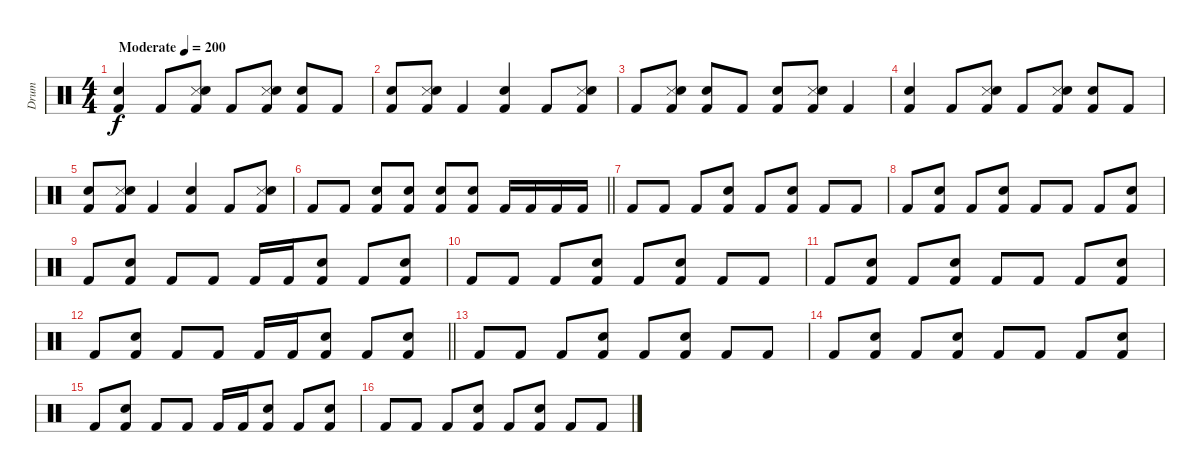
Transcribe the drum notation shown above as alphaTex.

\track ("Drum" "Drum") {instrument percussion}
\staff {score}
\articulation defaults
\ts (4 4)
\section ("" " ")
\tempo (200 "Moderate")
\clef neutral
\ks c
("Snare (hit) 2" "Kick (hit) 2").4{dy f} "Kick (hit) 2".8 ("Snare (side stick) 3" "Electric Snare (hit)" "Kick (hit) 2").8 "Kick (hit) 2".8 ("Snare (side stick) 3" "Electric Snare (hit)" "Kick (hit) 2").8 ("Snare (hit) 2" "Kick (hit) 2").8 "Kick (hit) 2".8 |
("Snare (hit) 2" "Kick (hit) 2").8 ("Snare (side stick) 3" "Electric Snare (hit)" "Kick (hit) 2").8 "Kick (hit) 2".4 ("Snare (hit) 2" "Kick (hit) 2").4 "Kick (hit) 2".8 ("Snare (side stick) 3" "Electric Snare (hit)" "Kick (hit) 2").8 |
"Kick (hit) 2".8 ("Snare (side stick) 3" "Electric Snare (hit)" "Kick (hit) 2").8 ("Snare (hit) 2" "Kick (hit) 2").8 "Kick (hit) 2".8 ("Snare (hit) 2" "Kick (hit) 2").8 ("Snare (side stick) 3" "Electric Snare (hit)" "Kick (hit) 2").8 "Kick (hit) 2".4 |
("Snare (hit) 2" "Kick (hit) 2").4 "Kick (hit) 2".8 ("Snare (side stick) 3" "Electric Snare (hit)" "Kick (hit) 2").8 "Kick (hit) 2".8 ("Snare (side stick) 3" "Electric Snare (hit)" "Kick (hit) 2").8 ("Snare (hit) 2" "Kick (hit) 2").8 "Kick (hit) 2".8 |
("Snare (hit) 2" "Kick (hit) 2").8 ("Snare (side stick) 3" "Electric Snare (hit)" "Kick (hit) 2").8 "Kick (hit) 2".4 ("Snare (hit) 2" "Kick (hit) 2").4 "Kick (hit) 2".8 ("Snare (side stick) 3" "Electric Snare (hit)" "Kick (hit) 2").8 |
\barLineRight lightlight "Kick (hit) 2".8 "Kick (hit) 2".8
("Electric Snare (hit)" "Kick (hit) 2").8 ("Electric Snare (hit)" "Kick (hit) 2").8 ("Electric Snare (hit)" "Kick (hit) 2").8 ("Snare (hit) 2" "Kick (hit) 2").8 "Kick (hit) 2".16 "Kick (hit) 2".16 "Kick (hit) 2".16 "Kick (hit) 2".16 |
\section ("" " ")
"Kick (hit) 2".8 "Kick (hit) 2".8 "Kick (hit) 2".8 ("Snare (hit) 2" "Kick (hit) 2").8 "Kick (hit) 2".8 ("Snare (hit) 2" "Kick (hit) 2").8 "Kick (hit) 2".8 "Kick (hit) 2".8 |
"Kick (hit) 2".8 ("Snare (hit) 2" "Kick (hit) 2").8 "Kick (hit) 2".8 ("Snare (hit) 2" "Kick (hit) 2").8 "Kick (hit) 2".8 "Kick (hit) 2".8 "Kick (hit) 2".8 ("Snare (hit) 2" "Kick (hit) 2").8 |
"Kick (hit) 2".8 ("Snare (hit) 2" "Kick (hit) 2").8 "Kick (hit) 2".8 "Kick (hit) 2".8 "Kick (hit) 2".16 "Kick (hit) 2".16 ("Snare (hit) 2" "Kick (hit) 2").8 "Kick (hit) 2".8 ("Snare (hit) 2" "Kick (hit) 2").8 |
"Kick (hit) 2".8 "Kick (hit) 2".8 "Kick (hit) 2".8 ("Snare (hit) 2" "Kick (hit) 2").8 "Kick (hit) 2".8 ("Snare (hit) 2" "Kick (hit) 2").8 "Kick (hit) 2".8 "Kick (hit) 2".8 |
"Kick (hit) 2".8 ("Snare (hit) 2" "Kick (hit) 2").8 "Kick (hit) 2".8 ("Snare (hit) 2" "Kick (hit) 2").8 "Kick (hit) 2".8 "Kick (hit) 2".8 "Kick (hit) 2".8 ("Snare (hit) 2" "Kick (hit) 2").8 |
\barLineRight lightlight "Kick (hit) 2".8
("Snare (hit) 2" "Kick (hit) 2").8 "Kick (hit) 2".8 "Kick (hit) 2".8 "Kick (hit) 2".16 "Kick (hit) 2".16 ("Snare (hit) 2" "Kick (hit) 2").8 "Kick (hit) 2".8 ("Snare (hit) 2" "Kick (hit) 2").8 |
\section ("" " ")
"Kick (hit) 2".8 "Kick (hit) 2".8 "Kick (hit) 2".8 ("Snare (hit) 2" "Kick (hit) 2").8 "Kick (hit) 2".8 ("Snare (hit) 2" "Kick (hit) 2").8 "Kick (hit) 2".8 "Kick (hit) 2".8 |
"Kick (hit) 2".8 ("Snare (hit) 2" "Kick (hit) 2").8 "Kick (hit) 2".8 ("Snare (hit) 2" "Kick (hit) 2").8 "Kick (hit) 2".8 "Kick (hit) 2".8 "Kick (hit) 2".8 ("Snare (hit) 2" "Kick (hit) 2").8 |
"Kick (hit) 2".8 ("Snare (hit) 2" "Kick (hit) 2").8 "Kick (hit) 2".8 "Kick (hit) 2".8 "Kick (hit) 2".16 "Kick (hit) 2".16 ("Snare (hit) 2" "Kick (hit) 2").8 "Kick (hit) 2".8 ("Snare (hit) 2" "Kick (hit) 2").8 |
"Kick (hit) 2".8 "Kick (hit) 2".8 "Kick (hit) 2".8 ("Snare (hit) 2" "Kick (hit) 2").8 "Kick (hit) 2".8 ("Snare (hit) 2" "Kick (hit) 2").8 "Kick (hit) 2".8 "Kick (hit) 2".8
